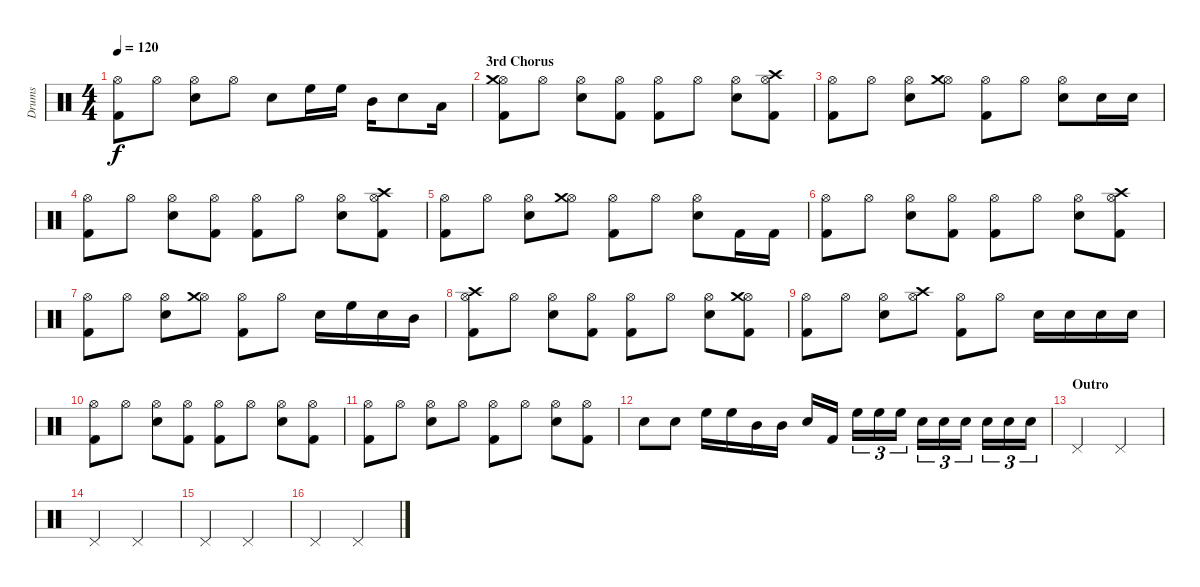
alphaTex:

\track ("Drums" "Drums") {instrument percussion}
\staff {score}
\articulation defaults
\ts (4 4)
\tempo 120
\clef neutral
\ks c
("Hi-Hat (open)" "Kick (hit) 2").8{dy f} "Hi-Hat (open)".8 ("Hi-Hat (open)" "Electric Snare (hit)").8 "Hi-Hat (open)".8 "Snare (hit) 2".8 "High Floor Tom (hit)".16 "High Floor Tom (hit)".16 "Mid Tom (hit)".16 "Snare (hit) 2".8 "Low Floor Tom (hit)".16 |
\section ("" "3rd Chorus")
("Hi-Hat (open)" "Crash medium (hit)" "Kick (hit) 2").8 "Hi-Hat (open)".8 ("Hi-Hat (open)" "Electric Snare (hit)").8 ("Hi-Hat (open)" "Kick (hit) 2").8 ("Hi-Hat (open)" "Kick (hit) 2").8 "Hi-Hat (open)".8 ("Hi-Hat (open)" "Electric Snare (hit)").8 ("Hi-Hat (open)" "Crash high (hit)" "Kick (hit) 2").8 |
("Hi-Hat (open)" "Kick (hit) 2").8 "Hi-Hat (open)".8 ("Hi-Hat (open)" "Electric Snare (hit)").8 ("Hi-Hat (open)" "Crash medium (hit)").8 ("Hi-Hat (open)" "Kick (hit) 2").8 "Hi-Hat (open)".8 ("Hi-Hat (open)" "Electric Snare (hit)").8 "Snare (hit) 2".16 "Snare (hit) 2".16 |
("Hi-Hat (open)" "Kick (hit) 2").8 "Hi-Hat (open)".8 ("Hi-Hat (open)" "Electric Snare (hit)").8 ("Hi-Hat (open)" "Kick (hit) 2").8 ("Hi-Hat (open)" "Kick (hit) 2").8 "Hi-Hat (open)".8 ("Hi-Hat (open)" "Electric Snare (hit)").8 ("Hi-Hat (open)" "Crash high (hit)" "Kick (hit) 2").8 |
("Hi-Hat (open)" "Kick (hit) 2").8 "Hi-Hat (open)".8 ("Hi-Hat (open)" "Electric Snare (hit)").8 ("Hi-Hat (open)" "Crash medium (hit)").8 ("Hi-Hat (open)" "Kick (hit) 2").8 "Hi-Hat (open)".8 ("Hi-Hat (open)" "Electric Snare (hit)").8 "Kick (hit) 2".16 "Kick (hit) 2".16 |
("Hi-Hat (open)" "Kick (hit) 2").8 "Hi-Hat (open)".8 ("Hi-Hat (open)" "Electric Snare (hit)").8 ("Hi-Hat (open)" "Kick (hit) 2").8 ("Hi-Hat (open)" "Kick (hit) 2").8 "Hi-Hat (open)".8 ("Hi-Hat (open)" "Electric Snare (hit)").8 ("Hi-Hat (open)" "Crash high (hit)" "Kick (hit) 2").8 |
("Hi-Hat (open)" "Kick (hit) 2").8 "Hi-Hat (open)".8 ("Hi-Hat (open)" "Electric Snare (hit)").8 ("Hi-Hat (open)" "Crash medium (hit)").8 ("Hi-Hat (open)" "Kick (hit) 2").8 "Hi-Hat (open)".8 "Snare (hit) 2".16 "High Floor Tom (hit)".16 "Snare (hit) 2".16 "Mid Tom (hit)".16 |
("Hi-Hat (open)" "Crash high (hit)" "Kick (hit) 2").8 "Hi-Hat (open)".8 ("Hi-Hat (open)" "Electric Snare (hit)").8 ("Hi-Hat (open)" "Kick (hit) 2").8 ("Hi-Hat (open)" "Kick (hit) 2").8 "Hi-Hat (open)".8 ("Hi-Hat (open)" "Electric Snare (hit)").8 ("Hi-Hat (open)" "Crash medium (hit)" "Kick (hit) 2").8 |
("Hi-Hat (open)" "Kick (hit) 2").8 "Hi-Hat (open)".8 ("Hi-Hat (open)" "Electric Snare (hit)").8 ("Hi-Hat (open)" "Crash high (hit)").8 ("Hi-Hat (open)" "Kick (hit) 2").8 "Hi-Hat (open)".8 "Electric Snare (hit)".16 "Electric Snare (hit)".16 "Electric Snare (hit)".16 "Electric Snare (hit)".16 |
("Hi-Hat (open)" "Kick (hit) 2").8 "Hi-Hat (open)".8 ("Hi-Hat (open)" "Electric Snare (hit)").8 ("Hi-Hat (open)" "Kick (hit) 2").8 ("Hi-Hat (open)" "Kick (hit) 2").8 "Hi-Hat (open)".8 ("Hi-Hat (open)" "Electric Snare (hit)").8 ("Hi-Hat (open)" "Kick (hit) 2").8 |
("Hi-Hat (open)" "Kick (hit) 2").8 "Hi-Hat (open)".8 ("Hi-Hat (open)" "Electric Snare (hit)").8 "Hi-Hat (open)".8 ("Hi-Hat (open)" "Kick (hit) 2").8 "Hi-Hat (open)".8 ("Hi-Hat (open)" "Electric Snare (hit)").8 ("Hi-Hat (open)" "Kick (hit) 2").8 |
"Snare (hit) 2".8 "Snare (hit) 2".8 "High Floor Tom (hit)".16 "High Floor Tom (hit)".16 "Mid Tom (hit)".16 "Mid Tom (hit)".16 "Snare (hit) 2".16 "Kick (hit) 2".16 "High Floor Tom (hit)".16{tu (3 2)} "High Floor Tom (hit)".16{tu (3 2)} "High Floor Tom (hit)".16{tu (3 2)} "Snare (hit) 2".16{tu (3 2)} "Snare (hit) 2".16{tu (3 2)} "Snare (hit) 2".16{tu (3 2)} "Snare (hit) 2".16{tu (3 2)} "Snare (hit) 2".16{tu (3 2)} "Snare (hit) 2".16{tu (3 2)} |
\section ("" "Outro")
"Pedal Hi-Hat (hit)".2 "Pedal Hi-Hat (hit)".2 |
"Pedal Hi-Hat (hit)".2 "Pedal Hi-Hat (hit)".2 |
"Pedal Hi-Hat (hit)".2 "Pedal Hi-Hat (hit)".2 |
"Pedal Hi-Hat (hit)".2 "Pedal Hi-Hat (hit)".2
